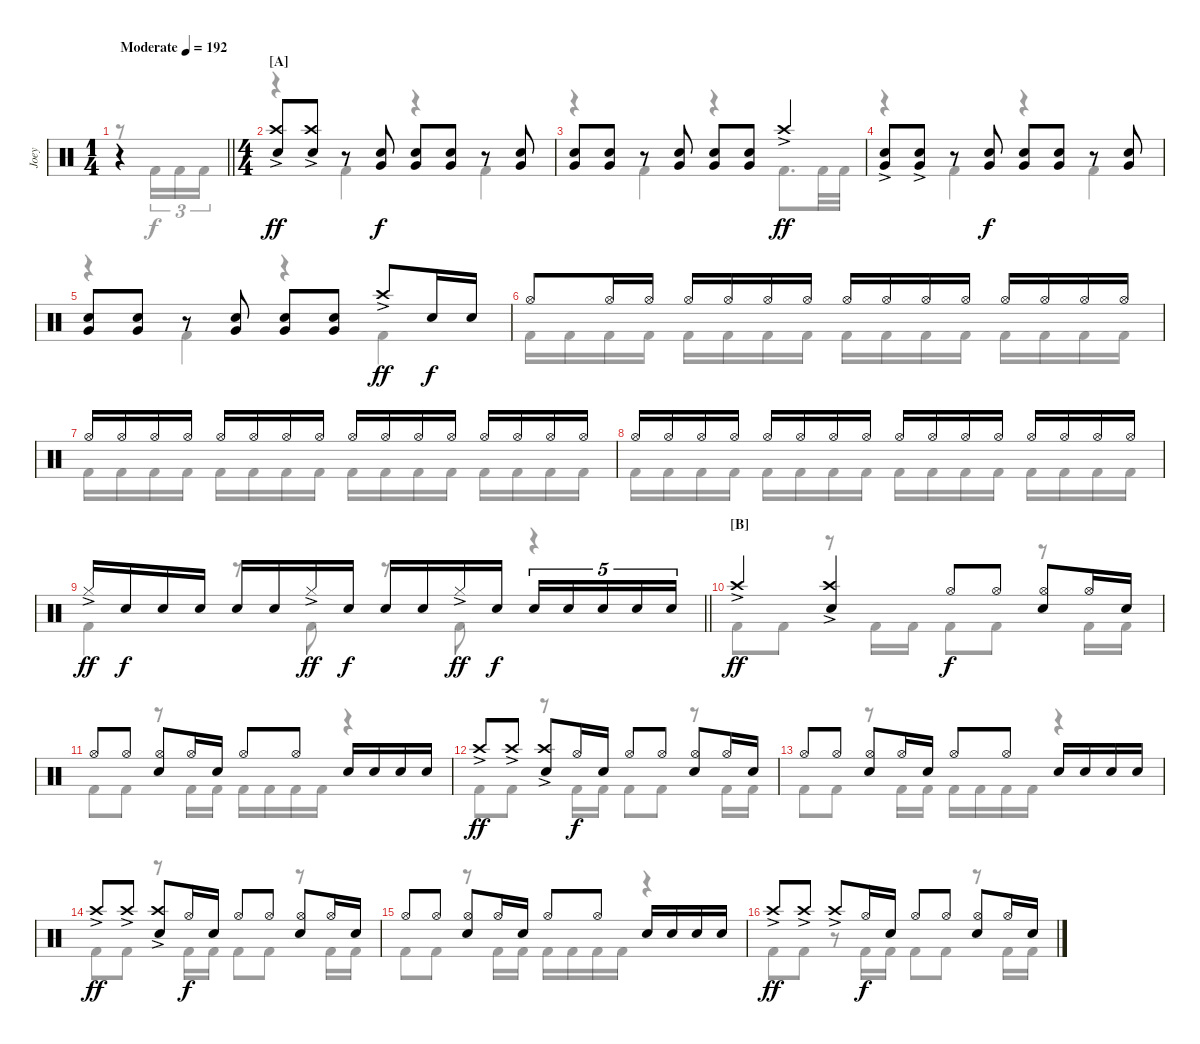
\track ("Joey" "Joey") {instrument percussion}
\staff {score}
\articulation defaults
\voice
\ts (1 4)
\tempo (192 "Moderate")
\clef neutral
\barLineRight lightlight
\ks c
r.4{dy ff} |
\ts (4 4)
\section ("" "[A]")
("Crash high (hit)"{ac} "Snare (hit) 2").8 ("Crash high (hit)"{ac} "Snare (hit) 2").8 r.8 ("Snare (hit) 2" "Very Low Tom (hit)").8{dy f} ("Snare (hit) 2" "Very Low Tom (hit)").8 ("Snare (hit) 2" "Very Low Tom (hit)").8 r.8 ("Snare (hit) 2" "Very Low Tom (hit)").8 |
("Snare (hit) 2" "Very Low Tom (hit)").8 ("Snare (hit) 2" "Very Low Tom (hit)").8 r.8 ("Snare (hit) 2" "Very Low Tom (hit)").8 ("Snare (hit) 2" "Very Low Tom (hit)").8 ("Snare (hit) 2" "Very Low Tom (hit)").8 "Crash high (hit)"{ac}.4{dy ff} |
("Snare (hit) 2"{ac} "Very Low Tom (hit)").8 ("Snare (hit) 2"{ac} "Very Low Tom (hit)").8 r.8 ("Snare (hit) 2" "Very Low Tom (hit)").8{dy f} ("Snare (hit) 2" "Very Low Tom (hit)").8 ("Snare (hit) 2" "Very Low Tom (hit)").8 r.8 ("Snare (hit) 2" "Very Low Tom (hit)").8 |
("Snare (hit) 2" "Very Low Tom (hit)").8 ("Snare (hit) 2" "Very Low Tom (hit)").8 r.8 ("Snare (hit) 2" "Very Low Tom (hit)").8 ("Snare (hit) 2" "Very Low Tom (hit)").8 ("Snare (hit) 2" "Very Low Tom (hit)").8 "Crash high (hit)"{ac}.8{dy ff} "Snare (hit) 2".16{dy f} "Snare (hit) 2".16 |
"Hi-Hat (open)".8 "Hi-Hat (open)".16 "Hi-Hat (open)".16 "Hi-Hat (open)".16 "Hi-Hat (open)".16 "Hi-Hat (open)".16 "Hi-Hat (open)".16 "Hi-Hat (open)".16 "Hi-Hat (open)".16 "Hi-Hat (open)".16 "Hi-Hat (open)".16 "Hi-Hat (open)".16 "Hi-Hat (open)".16 "Hi-Hat (open)".16 "Hi-Hat (open)".16 |
"Hi-Hat (open)".16 "Hi-Hat (open)".16 "Hi-Hat (open)".16 "Hi-Hat (open)".16 "Hi-Hat (open)".16 "Hi-Hat (open)".16 "Hi-Hat (open)".16 "Hi-Hat (open)".16 "Hi-Hat (open)".16 "Hi-Hat (open)".16 "Hi-Hat (open)".16 "Hi-Hat (open)".16 "Hi-Hat (open)".16 "Hi-Hat (open)".16 "Hi-Hat (open)".16 "Hi-Hat (open)".16 |
"Hi-Hat (open)".16 "Hi-Hat (open)".16 "Hi-Hat (open)".16 "Hi-Hat (open)".16 "Hi-Hat (open)".16 "Hi-Hat (open)".16 "Hi-Hat (open)".16 "Hi-Hat (open)".16 "Hi-Hat (open)".16 "Hi-Hat (open)".16 "Hi-Hat (open)".16 "Hi-Hat (open)".16 "Hi-Hat (open)".16 "Hi-Hat (open)".16 "Hi-Hat (open)".16 "Hi-Hat (open)".16 |
\barLineRight lightlight "Hi-Hat (closed)"{ac}.16{dy ff} "Snare (hit) 2".16{dy f} "Snare (hit) 2".16 "Snare (hit) 2".16 "Snare (hit) 2".16 "Snare (hit) 2".16 "Hi-Hat (closed)"{ac}.16{dy ff} "Snare (hit) 2".16{dy f} "Snare (hit) 2".16 "Snare (hit) 2".16 "Hi-Hat (closed)"{ac}.16{dy ff} "Snare (hit) 2".16{dy f} "Snare (hit) 2".16{tu (5 4)} "Snare (hit) 2".16{tu (5 4)} "Snare (hit) 2".16{tu (5 4)} "Snare (hit) 2".16{tu (5 4)} "Snare (hit) 2".16{tu (5 4)}
|
\section ("" "[B]")
"Crash high (hit)"{ac}.4{dy ff} ("Crash high (hit)"{ac} "Snare (hit) 2").4 "Hi-Hat (open)".8{dy f} "Hi-Hat (open)".8 ("Hi-Hat (open)" "Snare (hit) 2").8 "Hi-Hat (open)".16 "Snare (hit) 2".16 |
"Hi-Hat (open)".8 "Hi-Hat (open)".8 ("Hi-Hat (open)" "Snare (hit) 2").8 "Hi-Hat (open)".16 "Snare (hit) 2".16 "Hi-Hat (open)".8 "Hi-Hat (open)".8 "Snare (hit) 2".16 "Snare (hit) 2".16 "Snare (hit) 2".16 "Snare (hit) 2".16 |
"Crash high (hit)"{ac}.8{dy ff} "Crash high (hit)"{ac}.8 ("Crash high (hit)"{ac} "Snare (hit) 2").8 "Hi-Hat (open)".16{dy f} "Snare (hit) 2".16 "Hi-Hat (open)".8 "Hi-Hat (open)".8 ("Hi-Hat (open)" "Snare (hit) 2").8 "Hi-Hat (open)".16 "Snare (hit) 2".16 |
"Hi-Hat (open)".8 "Hi-Hat (open)".8 ("Hi-Hat (open)" "Snare (hit) 2").8 "Hi-Hat (open)".16 "Snare (hit) 2".16 "Hi-Hat (open)".8 "Hi-Hat (open)".8 "Snare (hit) 2".16 "Snare (hit) 2".16 "Snare (hit) 2".16 "Snare (hit) 2".16 |
"Crash high (hit)"{ac}.8{dy ff} "Crash high (hit)"{ac}.8 ("Crash high (hit)"{ac} "Snare (hit) 2").8 "Hi-Hat (open)".16{dy f} "Snare (hit) 2".16 "Hi-Hat (open)".8 "Hi-Hat (open)".8 ("Hi-Hat (open)" "Snare (hit) 2").8 "Hi-Hat (open)".16 "Snare (hit) 2".16 |
"Hi-Hat (open)".8 "Hi-Hat (open)".8 ("Hi-Hat (open)" "Snare (hit) 2").8 "Hi-Hat (open)".16 "Snare (hit) 2".16 "Hi-Hat (open)".8 "Hi-Hat (open)".8 "Snare (hit) 2".16 "Snare (hit) 2".16 "Snare (hit) 2".16 "Snare (hit) 2".16 |
"Crash high (hit)"{ac}.8{dy ff} "Crash high (hit)"{ac}.8 "Crash high (hit)"{ac}.8 "Hi-Hat (open)".16{dy f} "Snare (hit) 2".16 "Hi-Hat (open)".8 "Hi-Hat (open)".8 ("Hi-Hat (open)" "Snare (hit) 2").8 "Hi-Hat (open)".16 "Snare (hit) 2".16
\voice
\clef neutral
\ottava regular
\simile none
\barLineRight lightlight
\ks c
r.8{dy f} "Kick (hit) 2".16{tu (3 2)} "Kick (hit) 2".16{tu (3 2)} "Kick (hit) 2".16{tu (3 2)} |
r.4 "Kick (hit) 2".4 r.4 "Kick (hit) 2".4 |
r.4 "Kick (hit) 2".4 r.4 "Kick (hit) 2".8{d} "Kick (hit) 2".32 "Kick (hit) 2".32 |
r.4 "Kick (hit) 2".4 r.4 "Kick (hit) 2".4 |
r.4 "Kick (hit) 2".4 r.4 "Kick (hit) 2".4 |
"Kick (hit) 2".16 "Kick (hit) 2".16 "Kick (hit) 2".16 "Kick (hit) 2".16 "Kick (hit) 2".16 "Kick (hit) 2".16 "Kick (hit) 2".16 "Kick (hit) 2".16 "Kick (hit) 2".16 "Kick (hit) 2".16 "Kick (hit) 2".16 "Kick (hit) 2".16 "Kick (hit) 2".16 "Kick (hit) 2".16 "Kick (hit) 2".16 "Kick (hit) 2".16 |
"Kick (hit) 2".16 "Kick (hit) 2".16 "Kick (hit) 2".16 "Kick (hit) 2".16 "Kick (hit) 2".16 "Kick (hit) 2".16 "Kick (hit) 2".16 "Kick (hit) 2".16 "Kick (hit) 2".16 "Kick (hit) 2".16 "Kick (hit) 2".16 "Kick (hit) 2".16 "Kick (hit) 2".16 "Kick (hit) 2".16 "Kick (hit) 2".16 "Kick (hit) 2".16 |
"Kick (hit) 2".16 "Kick (hit) 2".16 "Kick (hit) 2".16 "Kick (hit) 2".16 "Kick (hit) 2".16 "Kick (hit) 2".16 "Kick (hit) 2".16 "Kick (hit) 2".16 "Kick (hit) 2".16 "Kick (hit) 2".16 "Kick (hit) 2".16 "Kick (hit) 2".16 "Kick (hit) 2".16 "Kick (hit) 2".16 "Kick (hit) 2".16 "Kick (hit) 2".16 |
\barLineRight lightlight "Kick (hit) 2".4
r.8 "Kick (hit) 2".8 r.8 "Kick (hit) 2".8 r.4 |
"Kick (hit) 2".8 "Kick (hit) 2".8 r.8 "Kick (hit) 2".16 "Kick (hit) 2".16 "Kick (hit) 2".8 "Kick (hit) 2".8 r.8 "Kick (hit) 2".16 "Kick (hit) 2".16 |
"Kick (hit) 2".8 "Kick (hit) 2".8 r.8 "Kick (hit) 2".16 "Kick (hit) 2".16 "Kick (hit) 2".16 "Kick (hit) 2".16 "Kick (hit) 2".16 "Kick (hit) 2".16 r.4 |
"Kick (hit) 2".8 "Kick (hit) 2".8 r.8 "Kick (hit) 2".16 "Kick (hit) 2".16 "Kick (hit) 2".8 "Kick (hit) 2".8 r.8 "Kick (hit) 2".16 "Kick (hit) 2".16 |
"Kick (hit) 2".8 "Kick (hit) 2".8 r.8 "Kick (hit) 2".16 "Kick (hit) 2".16 "Kick (hit) 2".16 "Kick (hit) 2".16 "Kick (hit) 2".16 "Kick (hit) 2".16 r.4 |
"Kick (hit) 2".8 "Kick (hit) 2".8 r.8 "Kick (hit) 2".16 "Kick (hit) 2".16 "Kick (hit) 2".8 "Kick (hit) 2".8 r.8 "Kick (hit) 2".16 "Kick (hit) 2".16 |
"Kick (hit) 2".8 "Kick (hit) 2".8 r.8 "Kick (hit) 2".16 "Kick (hit) 2".16 "Kick (hit) 2".16 "Kick (hit) 2".16 "Kick (hit) 2".16 "Kick (hit) 2".16 r.4 |
"Kick (hit) 2".8 "Kick (hit) 2".8 r.8 "Kick (hit) 2".16 "Kick (hit) 2".16 "Kick (hit) 2".8 "Kick (hit) 2".8 r.8 "Kick (hit) 2".16 "Kick (hit) 2".16
